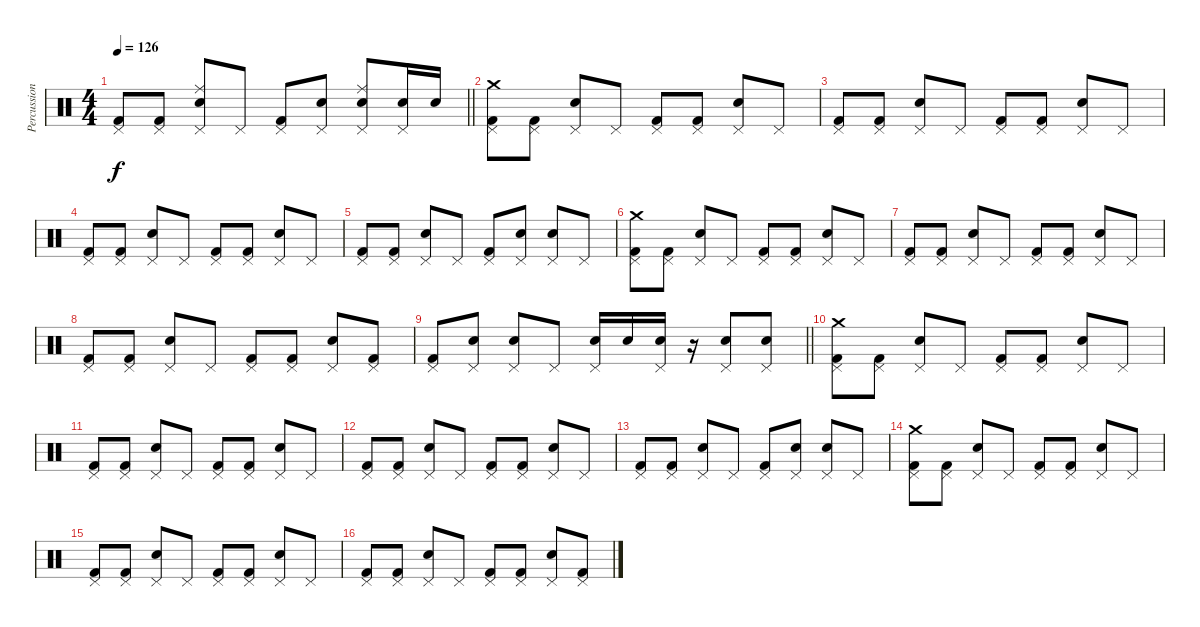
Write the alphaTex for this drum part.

\track ("Percussion" "Percussion") {instrument percussion}
\staff {score}
\articulation defaults
\ts (4 4)
\tempo 126
\clef neutral
\barLineRight lightlight
\ks c
("Pedal Hi-Hat (hit)" "Kick (hit) 2").8{dy f} ("Pedal Hi-Hat (hit)" "Kick (hit) 2").8 ("Pedal Hi-Hat (hit)" "Ride (middle)" "Snare (hit) 2").8 "Pedal Hi-Hat (hit)".8 ("Pedal Hi-Hat (hit)" "Kick (hit) 2").8 ("Pedal Hi-Hat (hit)" "Snare (hit) 2").8 ("Pedal Hi-Hat (hit)" "Ride (middle)" "Snare (hit) 2").8 ("Pedal Hi-Hat (hit)" "Snare (hit) 2").16 "Snare (hit) 2".16 |
("Pedal Hi-Hat (hit)" "Crash medium (hit)" "Kick (hit) 2").8 ("Pedal Hi-Hat (hit)" "Kick (hit) 2").8 ("Pedal Hi-Hat (hit)" "Snare (hit) 2").8 "Pedal Hi-Hat (hit)".8 ("Pedal Hi-Hat (hit)" "Kick (hit) 2").8 ("Pedal Hi-Hat (hit)" "Kick (hit) 2").8 ("Pedal Hi-Hat (hit)" "Snare (hit) 2").8 "Pedal Hi-Hat (hit)".8 |
("Pedal Hi-Hat (hit)" "Kick (hit) 2").8 ("Pedal Hi-Hat (hit)" "Kick (hit) 2").8 ("Pedal Hi-Hat (hit)" "Snare (hit) 2").8 "Pedal Hi-Hat (hit)".8 ("Pedal Hi-Hat (hit)" "Kick (hit) 2").8 ("Pedal Hi-Hat (hit)" "Kick (hit) 2").8 ("Pedal Hi-Hat (hit)" "Snare (hit) 2").8 "Pedal Hi-Hat (hit)".8 |
("Pedal Hi-Hat (hit)" "Kick (hit) 2").8 ("Pedal Hi-Hat (hit)" "Kick (hit) 2").8 ("Pedal Hi-Hat (hit)" "Snare (hit) 2").8 "Pedal Hi-Hat (hit)".8 ("Pedal Hi-Hat (hit)" "Kick (hit) 2").8 ("Pedal Hi-Hat (hit)" "Kick (hit) 2").8 ("Pedal Hi-Hat (hit)" "Snare (hit) 2").8 "Pedal Hi-Hat (hit)".8 |
("Pedal Hi-Hat (hit)" "Kick (hit) 2").8 ("Pedal Hi-Hat (hit)" "Kick (hit) 2").8 ("Pedal Hi-Hat (hit)" "Snare (hit) 2").8 "Pedal Hi-Hat (hit)".8 ("Pedal Hi-Hat (hit)" "Kick (hit) 2").8 ("Pedal Hi-Hat (hit)" "Snare (hit) 2").8 ("Pedal Hi-Hat (hit)" "Snare (hit) 2").8 "Pedal Hi-Hat (hit)".8 |
("Pedal Hi-Hat (hit)" "Crash medium (hit)" "Kick (hit) 2").8 ("Pedal Hi-Hat (hit)" "Kick (hit) 2").8 ("Pedal Hi-Hat (hit)" "Snare (hit) 2").8 "Pedal Hi-Hat (hit)".8 ("Pedal Hi-Hat (hit)" "Kick (hit) 2").8 ("Pedal Hi-Hat (hit)" "Kick (hit) 2").8 ("Pedal Hi-Hat (hit)" "Snare (hit) 2").8 "Pedal Hi-Hat (hit)".8 |
("Pedal Hi-Hat (hit)" "Kick (hit) 2").8 ("Pedal Hi-Hat (hit)" "Kick (hit) 2").8 ("Pedal Hi-Hat (hit)" "Snare (hit) 2").8 "Pedal Hi-Hat (hit)".8 ("Pedal Hi-Hat (hit)" "Kick (hit) 2").8 ("Pedal Hi-Hat (hit)" "Kick (hit) 2").8 ("Pedal Hi-Hat (hit)" "Snare (hit) 2").8 "Pedal Hi-Hat (hit)".8 |
("Pedal Hi-Hat (hit)" "Kick (hit) 2").8 ("Pedal Hi-Hat (hit)" "Kick (hit) 2").8 ("Pedal Hi-Hat (hit)" "Snare (hit) 2").8 "Pedal Hi-Hat (hit)".8 ("Pedal Hi-Hat (hit)" "Kick (hit) 2").8 ("Pedal Hi-Hat (hit)" "Kick (hit) 2").8 ("Pedal Hi-Hat (hit)" "Snare (hit) 2").8 ("Pedal Hi-Hat (hit)" "Kick (hit) 2").8 |
\barLineRight lightlight
("Pedal Hi-Hat (hit)" "Kick (hit) 2").8 ("Pedal Hi-Hat (hit)" "Snare (hit) 2").8 ("Pedal Hi-Hat (hit)" "Snare (hit) 2").8 "Pedal Hi-Hat (hit)".8 ("Pedal Hi-Hat (hit)" "Snare (hit) 2").16 "Snare (hit) 2".16 ("Pedal Hi-Hat (hit)" "Snare (hit) 2").16 r.16 ("Pedal Hi-Hat (hit)" "Snare (hit) 2").8 ("Pedal Hi-Hat (hit)" "Snare (hit) 2").8 |
("Pedal Hi-Hat (hit)" "Crash medium (hit)" "Kick (hit) 2").8 ("Pedal Hi-Hat (hit)" "Kick (hit) 2").8 ("Pedal Hi-Hat (hit)" "Snare (hit) 2").8 "Pedal Hi-Hat (hit)".8 ("Pedal Hi-Hat (hit)" "Kick (hit) 2").8 ("Pedal Hi-Hat (hit)" "Kick (hit) 2").8 ("Pedal Hi-Hat (hit)" "Snare (hit) 2").8 "Pedal Hi-Hat (hit)".8 |
("Pedal Hi-Hat (hit)" "Kick (hit) 2").8 ("Pedal Hi-Hat (hit)" "Kick (hit) 2").8 ("Pedal Hi-Hat (hit)" "Snare (hit) 2").8 "Pedal Hi-Hat (hit)".8 ("Pedal Hi-Hat (hit)" "Kick (hit) 2").8 ("Pedal Hi-Hat (hit)" "Kick (hit) 2").8 ("Pedal Hi-Hat (hit)" "Snare (hit) 2").8 "Pedal Hi-Hat (hit)".8 |
("Pedal Hi-Hat (hit)" "Kick (hit) 2").8 ("Pedal Hi-Hat (hit)" "Kick (hit) 2").8 ("Pedal Hi-Hat (hit)" "Snare (hit) 2").8 "Pedal Hi-Hat (hit)".8 ("Pedal Hi-Hat (hit)" "Kick (hit) 2").8 ("Pedal Hi-Hat (hit)" "Kick (hit) 2").8 ("Pedal Hi-Hat (hit)" "Snare (hit) 2").8 "Pedal Hi-Hat (hit)".8 |
("Pedal Hi-Hat (hit)" "Kick (hit) 2").8 ("Pedal Hi-Hat (hit)" "Kick (hit) 2").8 ("Pedal Hi-Hat (hit)" "Snare (hit) 2").8 "Pedal Hi-Hat (hit)".8 ("Pedal Hi-Hat (hit)" "Kick (hit) 2").8 ("Pedal Hi-Hat (hit)" "Snare (hit) 2").8 ("Pedal Hi-Hat (hit)" "Snare (hit) 2").8 "Pedal Hi-Hat (hit)".8 |
("Pedal Hi-Hat (hit)" "Crash medium (hit)" "Kick (hit) 2").8 ("Pedal Hi-Hat (hit)" "Kick (hit) 2").8 ("Pedal Hi-Hat (hit)" "Snare (hit) 2").8 "Pedal Hi-Hat (hit)".8 ("Pedal Hi-Hat (hit)" "Kick (hit) 2").8 ("Pedal Hi-Hat (hit)" "Kick (hit) 2").8 ("Pedal Hi-Hat (hit)" "Snare (hit) 2").8 "Pedal Hi-Hat (hit)".8 |
("Pedal Hi-Hat (hit)" "Kick (hit) 2").8 ("Pedal Hi-Hat (hit)" "Kick (hit) 2").8 ("Pedal Hi-Hat (hit)" "Snare (hit) 2").8 "Pedal Hi-Hat (hit)".8 ("Pedal Hi-Hat (hit)" "Kick (hit) 2").8 ("Pedal Hi-Hat (hit)" "Kick (hit) 2").8 ("Pedal Hi-Hat (hit)" "Snare (hit) 2").8 "Pedal Hi-Hat (hit)".8 |
("Pedal Hi-Hat (hit)" "Kick (hit) 2").8 ("Pedal Hi-Hat (hit)" "Kick (hit) 2").8 ("Pedal Hi-Hat (hit)" "Snare (hit) 2").8 "Pedal Hi-Hat (hit)".8 ("Pedal Hi-Hat (hit)" "Kick (hit) 2").8 ("Pedal Hi-Hat (hit)" "Kick (hit) 2").8 ("Pedal Hi-Hat (hit)" "Snare (hit) 2").8 ("Pedal Hi-Hat (hit)" "Kick (hit) 2").8
